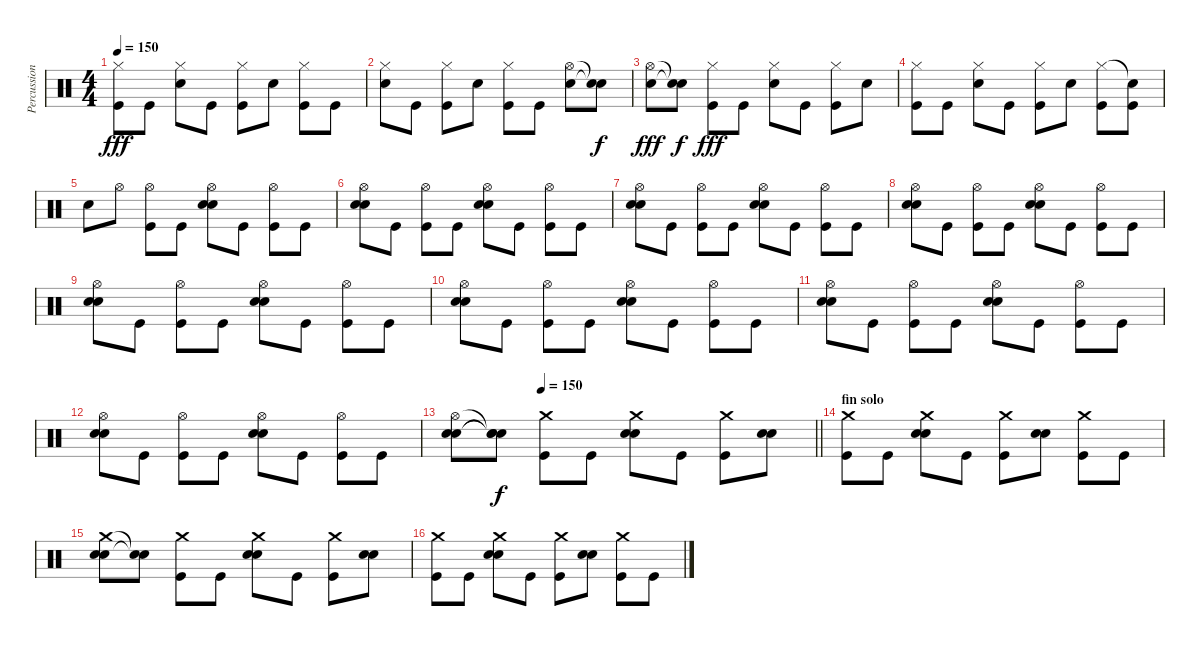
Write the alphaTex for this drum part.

\track ("Percussions" "Percussion") {instrument percussion}
\staff {score}
\articulation defaults
\ts (4 4)
\tempo 150
\clef neutral
\ks c
("Hi-Hat (closed)" "Kick (hit)").8{dy fff} "Kick (hit)".8 ("Hi-Hat (closed)" "Electric Snare (hit)").8 "Kick (hit)".8 ("Hi-Hat (closed)" "Kick (hit)").8 "Electric Snare (hit)".8 ("Hi-Hat (closed)" "Kick (hit)").8 "Kick (hit)".8 |
("Hi-Hat (closed)" "Electric Snare (hit)").8 "Kick (hit)".8 ("Hi-Hat (closed)" "Kick (hit)").8 "Electric Snare (hit)".8 ("Hi-Hat (closed)" "Kick (hit)").8 "Kick (hit)".8 ("Hi-Hat (open)" "Electric Snare (hit)").8 ("Snare (hit)"{t} "Snare (hit)"{t}).8{dy f} |
("Hi-Hat (open)" "Electric Snare (hit)").8{dy fff} ("Snare (hit)"{t} "Snare (hit)"{t}).8{dy f} ("Hi-Hat (closed)" "Kick (hit)").8{dy fff} "Kick (hit)".8 ("Hi-Hat (closed)" "Electric Snare (hit)").8 "Kick (hit)".8 ("Hi-Hat (closed)" "Kick (hit)").8 "Electric Snare (hit)".8 |
("Hi-Hat (closed)" "Kick (hit)").8 "Kick (hit)".8 ("Hi-Hat (closed)" "Electric Snare (hit)").8 "Kick (hit)".8 ("Hi-Hat (closed)" "Kick (hit)").8 "Electric Snare (hit)".8 ("Hi-Hat (closed)" "Kick (hit)").8 ("Snare (hit)"{t} "Kick (hit)").8 |
"Electric Snare (hit)".8 "Hi-Hat (open)".8 ("Hi-Hat (open)" "Kick (hit)").8 "Kick (hit)".8 ("Hi-Hat (open)" "Electric Snare (hit)" "Electric Snare (hit)").8 "Kick (hit)".8 ("Hi-Hat (open)" "Kick (hit)").8 "Kick (hit)".8 |
("Hi-Hat (open)" "Electric Snare (hit)" "Electric Snare (hit)").8 "Kick (hit)".8 ("Hi-Hat (open)" "Kick (hit)").8 "Kick (hit)".8 ("Hi-Hat (open)" "Electric Snare (hit)" "Electric Snare (hit)").8 "Kick (hit)".8 ("Hi-Hat (open)" "Kick (hit)").8 "Kick (hit)".8 |
("Hi-Hat (open)" "Electric Snare (hit)" "Electric Snare (hit)").8 "Kick (hit)".8 ("Hi-Hat (open)" "Kick (hit)").8 "Kick (hit)".8 ("Hi-Hat (open)" "Electric Snare (hit)" "Electric Snare (hit)").8 "Kick (hit)".8 ("Hi-Hat (open)" "Kick (hit)").8 "Kick (hit)".8 |
("Hi-Hat (open)" "Electric Snare (hit)" "Electric Snare (hit)").8 "Kick (hit)".8 ("Hi-Hat (open)" "Kick (hit)").8 "Kick (hit)".8 ("Hi-Hat (open)" "Electric Snare (hit)" "Electric Snare (hit)").8 "Kick (hit)".8 ("Hi-Hat (open)" "Kick (hit)").8 "Kick (hit)".8 |
("Hi-Hat (open)" "Electric Snare (hit)" "Electric Snare (hit)").8 "Kick (hit)".8 ("Hi-Hat (open)" "Kick (hit)").8 "Kick (hit)".8 ("Hi-Hat (open)" "Electric Snare (hit)" "Electric Snare (hit)").8 "Kick (hit)".8 ("Hi-Hat (open)" "Kick (hit)").8 "Kick (hit)".8 |
("Hi-Hat (open)" "Electric Snare (hit)" "Electric Snare (hit)").8 "Kick (hit)".8 ("Hi-Hat (open)" "Kick (hit)").8 "Kick (hit)".8 ("Hi-Hat (open)" "Electric Snare (hit)" "Electric Snare (hit)").8 "Kick (hit)".8 ("Hi-Hat (open)" "Kick (hit)").8 "Kick (hit)".8 |
("Hi-Hat (open)" "Electric Snare (hit)" "Electric Snare (hit)").8 "Kick (hit)".8 ("Hi-Hat (open)" "Kick (hit)").8 "Kick (hit)".8 ("Hi-Hat (open)" "Electric Snare (hit)" "Electric Snare (hit)").8 "Kick (hit)".8 ("Hi-Hat (open)" "Kick (hit)").8 "Kick (hit)".8 |
("Hi-Hat (open)" "Electric Snare (hit)" "Electric Snare (hit)").8 "Kick (hit)".8 ("Hi-Hat (open)" "Kick (hit)").8 "Kick (hit)".8 ("Hi-Hat (open)" "Electric Snare (hit)" "Electric Snare (hit)").8 "Kick (hit)".8 ("Hi-Hat (open)" "Kick (hit)").8 "Kick (hit)".8 |
\tempo (150 0.25)
\barLineRight lightlight
("Hi-Hat (open)" "Electric Snare (hit)" "Electric Snare (hit)").8 ("Snare (hit)"{t} "Snare (hit)"{t} "Snare (hit)"{t}).8{dy f} ("Crash medium (hit)" "Kick (hit)").8 "Kick (hit)".8 ("Crash medium (hit)" "Electric Snare (hit)" "Electric Snare (hit)").8 "Kick (hit)".8 ("Crash medium (hit)" "Kick (hit)").8 ("Electric Snare (hit)" "Electric Snare (hit)").8 |
\section ("" "fin solo")
("Crash medium (hit)" "Kick (hit)").8 "Kick (hit)".8 ("Crash medium (hit)" "Electric Snare (hit)" "Electric Snare (hit)").8 "Kick (hit)".8 ("Crash medium (hit)" "Kick (hit)").8 ("Electric Snare (hit)" "Electric Snare (hit)").8 ("Crash medium (hit)" "Kick (hit)").8 "Kick (hit)".8 |
("Crash medium (hit)" "Electric Snare (hit)" "Electric Snare (hit)").8 ("Electric Snare (hit)"{t} "Electric Snare (hit)"{t}).8 ("Crash medium (hit)" "Kick (hit)").8 "Kick (hit)".8 ("Crash medium (hit)" "Electric Snare (hit)" "Electric Snare (hit)").8 "Kick (hit)".8 ("Crash medium (hit)" "Kick (hit)").8 ("Electric Snare (hit)" "Electric Snare (hit)").8 |
("Crash medium (hit)" "Kick (hit)").8 "Kick (hit)".8 ("Crash medium (hit)" "Electric Snare (hit)" "Electric Snare (hit)").8 "Kick (hit)".8 ("Crash medium (hit)" "Kick (hit)").8 ("Electric Snare (hit)" "Electric Snare (hit)").8 ("Crash medium (hit)" "Kick (hit)").8 "Kick (hit)".8
